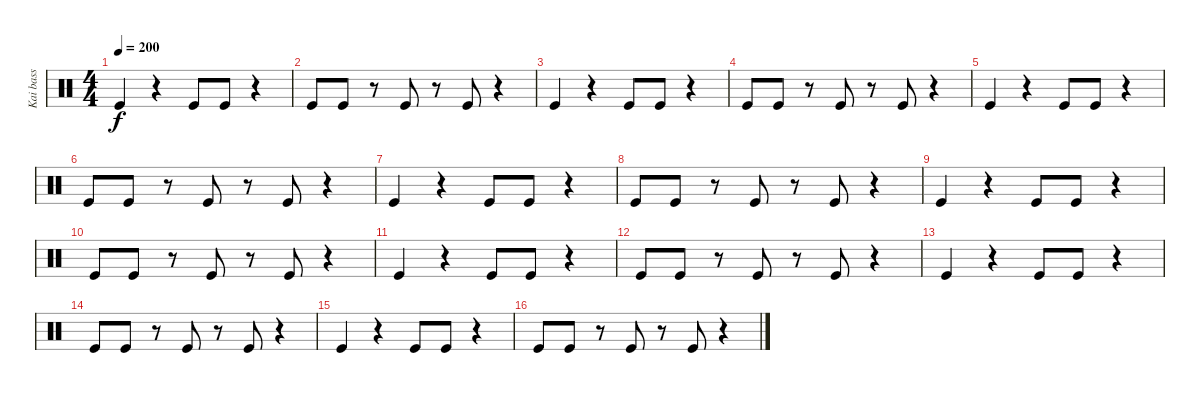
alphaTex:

\track ("Kai bass" "Kai bass") {instrument percussion}
\staff {score}
\articulation defaults
\ts (4 4)
\tempo 200
\clef neutral
\ks c "Kick (hit)".4{dy f}
r.4 "Kick (hit)".8 "Kick (hit)".8 r.4 |
"Kick (hit)".8 "Kick (hit)".8 r.8 "Kick (hit)".8 r.8 "Kick (hit)".8 r.4 |
"Kick (hit)".4 r.4 "Kick (hit)".8 "Kick (hit)".8 r.4 |
"Kick (hit)".8 "Kick (hit)".8 r.8 "Kick (hit)".8 r.8 "Kick (hit)".8 r.4 |
"Kick (hit)".4 r.4 "Kick (hit)".8 "Kick (hit)".8 r.4 |
"Kick (hit)".8 "Kick (hit)".8 r.8 "Kick (hit)".8 r.8 "Kick (hit)".8 r.4 |
"Kick (hit)".4 r.4 "Kick (hit)".8 "Kick (hit)".8 r.4 |
"Kick (hit)".8 "Kick (hit)".8 r.8 "Kick (hit)".8 r.8 "Kick (hit)".8 r.4 |
"Kick (hit)".4 r.4 "Kick (hit)".8 "Kick (hit)".8 r.4 |
"Kick (hit)".8 "Kick (hit)".8 r.8 "Kick (hit)".8 r.8 "Kick (hit)".8 r.4 |
"Kick (hit)".4 r.4 "Kick (hit)".8 "Kick (hit)".8 r.4 |
"Kick (hit)".8 "Kick (hit)".8 r.8 "Kick (hit)".8 r.8 "Kick (hit)".8 r.4 |
"Kick (hit)".4 r.4 "Kick (hit)".8 "Kick (hit)".8 r.4 |
"Kick (hit)".8 "Kick (hit)".8 r.8 "Kick (hit)".8 r.8 "Kick (hit)".8 r.4 |
"Kick (hit)".4 r.4 "Kick (hit)".8 "Kick (hit)".8 r.4 |
"Kick (hit)".8 "Kick (hit)".8 r.8 "Kick (hit)".8 r.8 "Kick (hit)".8 r.4
